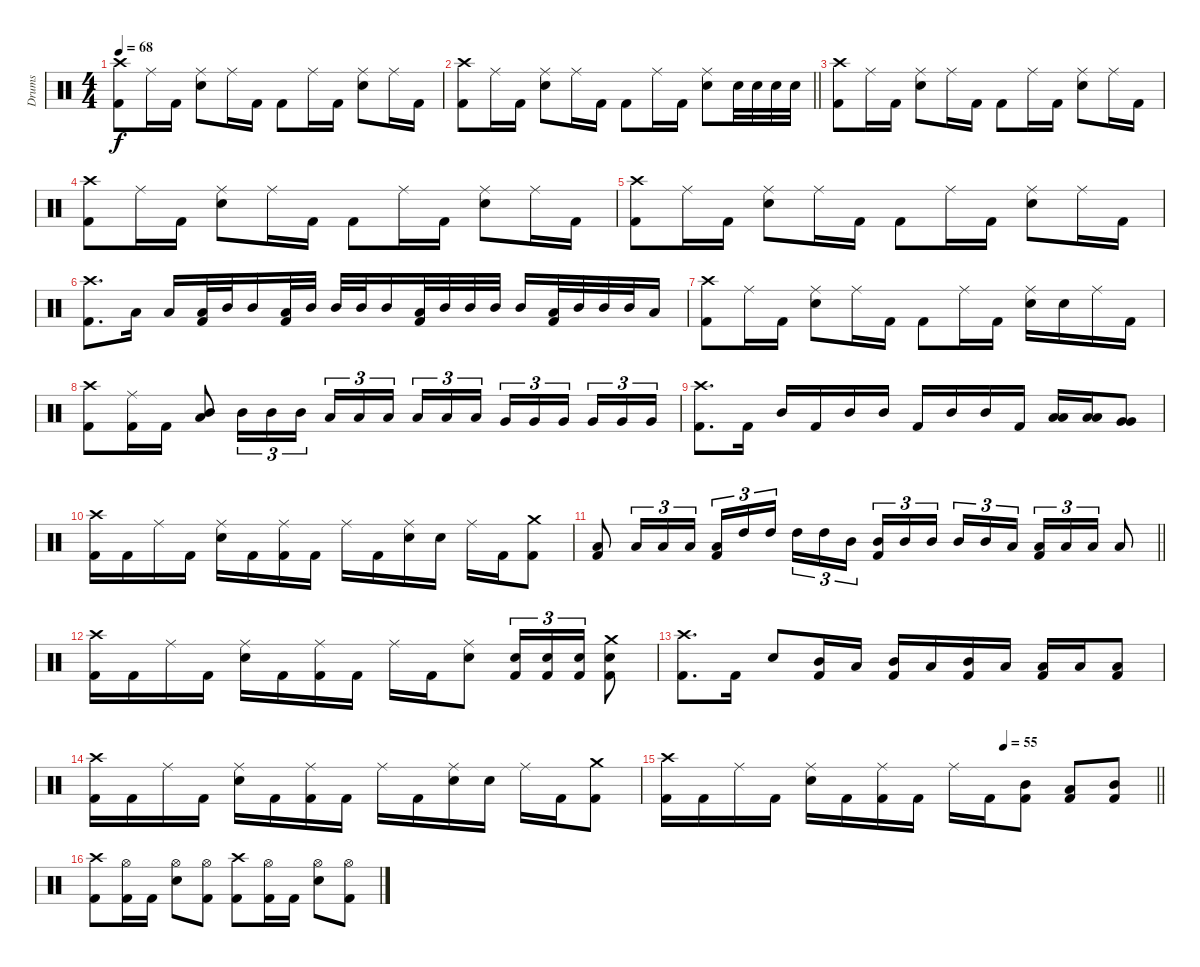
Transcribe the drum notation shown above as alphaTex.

\track ("Drums" "Drums") {instrument percussion}
\staff {score}
\articulation defaults
\ts (4 4)
\tempo 68
\clef neutral
\ks c
("Crash high (hit)" "Kick (hit) 2").8{dy f} "Ride (middle)".16 "Kick (hit) 2".16 ("Ride (middle)" "Electric Snare (hit)").8 "Ride (middle)".16 "Kick (hit) 2".16 "Kick (hit) 2".8 "Ride (middle)".16 "Kick (hit) 2".16 ("Ride (middle)" "Electric Snare (hit)").8 "Ride (middle)".16 "Kick (hit) 2".16 |
\barLineRight lightlight
("Crash high (hit)" "Kick (hit) 2").8 "Ride (middle)".16 "Kick (hit) 2".16 ("Ride (middle)" "Electric Snare (hit)").8 "Ride (middle)".16 "Kick (hit) 2".16 "Kick (hit) 2".8 "Ride (middle)".16 "Kick (hit) 2".16 ("Ride (middle)" "Electric Snare (hit)").8 "Electric Snare (hit)".32 "Electric Snare (hit)".32 "Electric Snare (hit)".32 "Electric Snare (hit)".32 |
("Crash high (hit)" "Kick (hit) 2").8 "Ride (middle)".16 "Kick (hit) 2".16 ("Ride (middle)" "Electric Snare (hit)").8 "Ride (middle)".16 "Kick (hit) 2".16 "Kick (hit) 2".8 "Ride (middle)".16 "Kick (hit) 2".16 ("Ride (middle)" "Electric Snare (hit)").8 "Ride (middle)".16 "Kick (hit) 2".16 |
("Crash high (hit)" "Kick (hit) 2").8 "Ride (middle)".16 "Kick (hit) 2".16 ("Ride (middle)" "Electric Snare (hit)").8 "Ride (middle)".16 "Kick (hit) 2".16 "Kick (hit) 2".8 "Ride (middle)".16 "Kick (hit) 2".16 ("Ride (middle)" "Electric Snare (hit)").8 "Ride (middle)".16 "Kick (hit) 2".16 |
("Crash high (hit)" "Kick (hit) 2").8 "Ride (middle)".16 "Kick (hit) 2".16 ("Ride (middle)" "Electric Snare (hit)").8 "Ride (middle)".16 "Kick (hit) 2".16 "Kick (hit) 2".8 "Ride (middle)".16 "Kick (hit) 2".16 ("Ride (middle)" "Electric Snare (hit)").8 "Ride (middle)".16 "Kick (hit) 2".16 |
("Crash high (hit)" "Kick (hit) 2").8{d} "Low Tom (hit)".16 "Low Tom (hit)".16 ("Low Tom (hit)" "Kick (hit) 2").32 "Mid Tom (hit)".32 "Mid Tom (hit)".16 ("Low Tom (hit)" "Kick (hit) 2").32 "Mid Tom (hit)".32 "Mid Tom (hit)".32 "Mid Tom (hit)".32 "Mid Tom (hit)".16 ("Low Tom (hit)" "Kick (hit) 2").32 "Mid Tom (hit)".32 "Mid Tom (hit)".32 "Mid Tom (hit)".32 "Mid Tom (hit)".16 ("Low Tom (hit)" "Kick (hit) 2").32 "Mid Tom (hit)".32 "Mid Tom (hit)".32 "Mid Tom (hit)".32 "Low Tom (hit)".16 |
("Crash high (hit)" "Kick (hit) 2").8 "Ride (middle)".16 "Kick (hit) 2".16 ("Ride (middle)" "Electric Snare (hit)").8 "Ride (middle)".16 "Kick (hit) 2".16 "Kick (hit) 2".8 "Ride (middle)".16 "Kick (hit) 2".16 ("Ride (middle)" "Electric Snare (hit)").16 "Electric Snare (hit)".16 "Ride (middle)".16 "Kick (hit) 2".16 |
("Crash high (hit)" "Kick (hit) 2").8 ("Ride (middle)" "Kick (hit) 2").16 "Kick (hit) 2".16 ("Low Tom (hit)" "Mid Tom (hit)").8 "Mid Tom (hit)".16{tu (3 2)} "Mid Tom (hit)".16{tu (3 2)} "Mid Tom (hit)".16{tu (3 2)} "Low Tom (hit)".16{tu (3 2)} "Low Tom (hit)".16{tu (3 2)} "Low Tom (hit)".16{tu (3 2) beam splitsecondary} "Low Tom (hit)".16{tu (3 2)} "Low Tom (hit)".16{tu (3 2)} "Low Tom (hit)".16{tu (3 2)} "Very Low Tom (hit)".16{tu (3 2)} "Very Low Tom (hit)".16{tu (3 2)} "Very Low Tom (hit)".16{tu (3 2) beam splitsecondary} "Very Low Tom (hit)".16{tu (3 2)} "Very Low Tom (hit)".16{tu (3 2)} "Very Low Tom (hit)".16{tu (3 2)} |
("Crash high (hit)" "Kick (hit) 2").8{d} "Kick (hit) 2".16 "Mid Tom (hit)".16 "Kick (hit) 2".16 "Mid Tom (hit)".16 "Mid Tom (hit)".16 "Kick (hit) 2".16 "Mid Tom (hit)".16 "Mid Tom (hit)".16 "Kick (hit) 2".16 ("Low Tom (hit)" "Low Tom (hit)").16 ("Low Tom (hit)" "Low Tom (hit)").16 ("Very Low Tom (hit)" "Very Low Tom (hit)").8 |
("Crash high (hit)" "Kick (hit) 2").16 "Kick (hit) 2".16 "Ride (middle)".16 "Kick (hit) 2".16 ("Ride (middle)" "Electric Snare (hit)").16 "Kick (hit) 2".16 ("Ride (middle)" "Kick (hit) 2").16 "Kick (hit) 2".16 "Ride (middle)".16 "Kick (hit) 2".16 ("Ride (middle)" "Electric Snare (hit)").16 "Electric Snare (hit)".16 "Ride (middle)".16 "Kick (hit) 2".16 ("Crash medium (hit)" "Kick (hit) 2").8 |
\barLineRight lightlight
("Low Tom (hit)" "Kick (hit) 2").8 "Low Tom (hit)".16{tu (3 2)} "Low Tom (hit)".16{tu (3 2)} "Low Tom (hit)".16{tu (3 2)} ("Low Tom (hit)" "Kick (hit) 2").16{tu (3 2)} "High Tom (hit)".16{tu (3 2)} "High Tom (hit)".16{tu (3 2) beam splitsecondary} "High Tom (hit)".16{tu (3 2)} "High Tom (hit)".16{tu (3 2)} "Mid Tom (hit)".16{tu (3 2)} ("Mid Tom (hit)" "Kick (hit) 2").16{tu (3 2)} "Mid Tom (hit)".16{tu (3 2)} "Mid Tom (hit)".16{tu (3 2) beam splitsecondary} "Mid Tom (hit)".16{tu (3 2)} "Mid Tom (hit)".16{tu (3 2)} "Low Tom (hit)".16{tu (3 2)} ("Low Tom (hit)" "Kick (hit) 2").16{tu (3 2)} "Low Tom (hit)".16{tu (3 2)} "Low Tom (hit)".16{tu (3 2)} "Low Tom (hit)".8 |
("Crash high (hit)" "Kick (hit) 2").16 "Kick (hit) 2".16 "Ride (middle)".16 "Kick (hit) 2".16 ("Ride (middle)" "Electric Snare (hit)").16 "Kick (hit) 2".16 ("Ride (middle)" "Kick (hit) 2").16 "Kick (hit) 2".16 "Ride (middle)".16 "Kick (hit) 2".16 ("Ride (middle)" "Electric Snare (hit)").8 ("Electric Snare (hit)" "Kick (hit) 2").16{tu (3 2)} ("Electric Snare (hit)" "Kick (hit) 2").16{tu (3 2)} ("Electric Snare (hit)" "Kick (hit) 2").16{tu (3 2)} ("Crash medium (hit)" "Electric Snare (hit)" "Kick (hit) 2").8 |
("Crash high (hit)" "Kick (hit) 2").8{d} "Kick (hit) 2".16 "Electric Snare (hit)".8 ("Mid Tom (hit)" "Kick (hit) 2").16 "Low Tom (hit)".16 ("Mid Tom (hit)" "Kick (hit) 2").16 "Low Tom (hit)".16 ("Mid Tom (hit)" "Kick (hit) 2").16 "Low Tom (hit)".16 ("Low Tom (hit)" "Kick (hit) 2").16 "Low Tom (hit)".16 ("Low Tom (hit)" "Kick (hit) 2").8 |
("Crash high (hit)" "Kick (hit) 2").16 "Kick (hit) 2".16 "Ride (middle)".16 "Kick (hit) 2".16 ("Ride (middle)" "Electric Snare (hit)").16 "Kick (hit) 2".16 ("Ride (middle)" "Kick (hit) 2").16 "Kick (hit) 2".16 "Ride (middle)".16 "Kick (hit) 2".16 ("Ride (middle)" "Electric Snare (hit)").16 "Electric Snare (hit)".16 "Ride (middle)".16 "Kick (hit) 2".16 ("Crash medium (hit)" "Kick (hit) 2").8 |
\tempo (55 0.6875)
\barLineRight lightlight
("Crash high (hit)" "Kick (hit) 2").16 "Kick (hit) 2".16 "Ride (middle)".16 "Kick (hit) 2".16 ("Ride (middle)" "Electric Snare (hit)").16 "Kick (hit) 2".16 ("Ride (middle)" "Kick (hit) 2").16 "Kick (hit) 2".16 "Ride (middle)".16 "Kick (hit) 2".16 ("Mid Tom (hit)" "Kick (hit) 2").8 ("Low Tom (hit)" "Kick (hit) 2").8 ("Mid Tom (hit)" "Kick (hit) 2").8 |
("Crash high (hit)" "Kick (hit) 2").8 ("Hi-Hat (open)" "Kick (hit) 2").16 "Kick (hit) 2".16 ("Hi-Hat (open)" "Electric Snare (hit)").8 ("Hi-Hat (open)" "Kick (hit) 2").8 ("Crash high (hit)" "Kick (hit) 2").8 ("Hi-Hat (open)" "Kick (hit) 2").16 "Kick (hit) 2".16 ("Hi-Hat (open)" "Electric Snare (hit)").8 ("Hi-Hat (open)" "Kick (hit) 2").8
